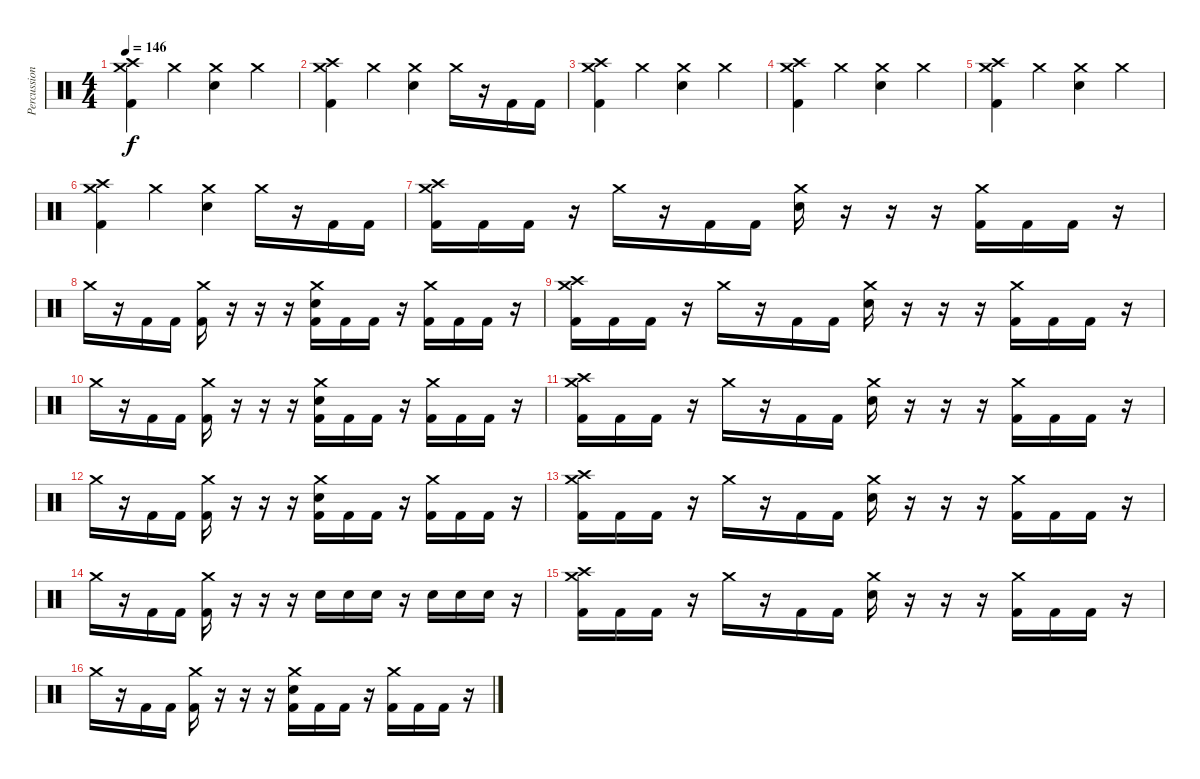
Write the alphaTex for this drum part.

\track ("Percussion" "Percussion") {instrument percussion}
\staff {score}
\articulation defaults
\ts (4 4)
\tempo 146
\clef neutral
\ks c
("Crash high (hit)" "Crash medium (hit)" "Kick (hit) 2").4{dy f} "Crash medium (hit)".4 ("Crash medium (hit)" "Snare (hit) 2").4 "Crash medium (hit)".4 |
("Crash high (hit)" "Crash medium (hit)" "Kick (hit) 2").4 "Crash medium (hit)".4 ("Crash medium (hit)" "Snare (hit) 2").4 "Crash medium (hit)".16 r.16 "Kick (hit) 2".16 "Kick (hit) 2".16 |
("Crash high (hit)" "Crash medium (hit)" "Kick (hit) 2").4 "Crash medium (hit)".4 ("Crash medium (hit)" "Snare (hit) 2").4 "Crash medium (hit)".4 |
("Crash high (hit)" "Crash medium (hit)" "Kick (hit) 2").4 "Crash medium (hit)".4 ("Crash medium (hit)" "Snare (hit) 2").4 "Crash medium (hit)".4 |
("Crash high (hit)" "Crash medium (hit)" "Kick (hit) 2").4 "Crash medium (hit)".4 ("Crash medium (hit)" "Snare (hit) 2").4 "Crash medium (hit)".4 |
("Crash high (hit)" "Crash medium (hit)" "Kick (hit) 2").4 "Crash medium (hit)".4 ("Crash medium (hit)" "Snare (hit) 2").4 "Crash medium (hit)".16 r.16 "Kick (hit) 2".16 "Kick (hit) 2".16 |
("Crash high (hit)" "Crash medium (hit)" "Kick (hit) 2").16 "Kick (hit) 2".16 "Kick (hit) 2".16 r.16 "Crash medium (hit)".16 r.16 "Kick (hit) 2".16 "Kick (hit) 2".16 ("Crash medium (hit)" "Snare (hit) 2").16 r.16 r.16 r.16 ("Crash medium (hit)" "Kick (hit) 2").16 "Kick (hit) 2".16 "Kick (hit) 2".16 r.16 |
"Crash medium (hit)".16 r.16 "Kick (hit) 2".16 "Kick (hit) 2".16 ("Crash medium (hit)" "Kick (hit) 2").16 r.16 r.16 r.16 ("Crash medium (hit)" "Snare (hit) 2" "Kick (hit) 2").16 "Kick (hit) 2".16 "Kick (hit) 2".16 r.16 ("Crash medium (hit)" "Kick (hit) 2").16 "Kick (hit) 2".16 "Kick (hit) 2".16 r.16 |
("Crash high (hit)" "Crash medium (hit)" "Kick (hit) 2").16 "Kick (hit) 2".16 "Kick (hit) 2".16 r.16 "Crash medium (hit)".16 r.16 "Kick (hit) 2".16 "Kick (hit) 2".16 ("Crash medium (hit)" "Snare (hit) 2").16 r.16 r.16 r.16 ("Crash medium (hit)" "Kick (hit) 2").16 "Kick (hit) 2".16 "Kick (hit) 2".16 r.16 |
"Crash medium (hit)".16 r.16 "Kick (hit) 2".16 "Kick (hit) 2".16 ("Crash medium (hit)" "Kick (hit) 2").16 r.16 r.16 r.16 ("Crash medium (hit)" "Snare (hit) 2" "Kick (hit) 2").16 "Kick (hit) 2".16 "Kick (hit) 2".16 r.16 ("Crash medium (hit)" "Kick (hit) 2").16 "Kick (hit) 2".16 "Kick (hit) 2".16 r.16 |
("Crash high (hit)" "Crash medium (hit)" "Kick (hit) 2").16 "Kick (hit) 2".16 "Kick (hit) 2".16 r.16 "Crash medium (hit)".16 r.16 "Kick (hit) 2".16 "Kick (hit) 2".16 ("Crash medium (hit)" "Snare (hit) 2").16 r.16 r.16 r.16 ("Crash medium (hit)" "Kick (hit) 2").16 "Kick (hit) 2".16 "Kick (hit) 2".16 r.16 |
"Crash medium (hit)".16 r.16 "Kick (hit) 2".16 "Kick (hit) 2".16 ("Crash medium (hit)" "Kick (hit) 2").16 r.16 r.16 r.16 ("Crash medium (hit)" "Snare (hit) 2" "Kick (hit) 2").16 "Kick (hit) 2".16 "Kick (hit) 2".16 r.16 ("Crash medium (hit)" "Kick (hit) 2").16 "Kick (hit) 2".16 "Kick (hit) 2".16 r.16 |
("Crash high (hit)" "Crash medium (hit)" "Kick (hit) 2").16 "Kick (hit) 2".16 "Kick (hit) 2".16 r.16 "Crash medium (hit)".16 r.16 "Kick (hit) 2".16 "Kick (hit) 2".16 ("Crash medium (hit)" "Snare (hit) 2").16 r.16 r.16 r.16 ("Crash medium (hit)" "Kick (hit) 2").16 "Kick (hit) 2".16 "Kick (hit) 2".16 r.16 |
"Crash medium (hit)".16 r.16 "Kick (hit) 2".16 "Kick (hit) 2".16 ("Crash medium (hit)" "Kick (hit) 2").16 r.16 r.16 r.16 "Snare (hit) 2".16 "Snare (hit) 2".16 "Snare (hit) 2".16 r.16 "Snare (hit) 2".16 "Snare (hit) 2".16 "Snare (hit) 2".16 r.16 |
("Crash high (hit)" "Crash medium (hit)" "Kick (hit) 2").16 "Kick (hit) 2".16 "Kick (hit) 2".16 r.16 "Crash medium (hit)".16 r.16 "Kick (hit) 2".16 "Kick (hit) 2".16 ("Crash medium (hit)" "Snare (hit) 2").16 r.16 r.16 r.16 ("Crash medium (hit)" "Kick (hit) 2").16 "Kick (hit) 2".16 "Kick (hit) 2".16 r.16 |
"Crash medium (hit)".16 r.16 "Kick (hit) 2".16 "Kick (hit) 2".16 ("Crash medium (hit)" "Kick (hit) 2").16 r.16 r.16 r.16 ("Crash medium (hit)" "Snare (hit) 2" "Kick (hit) 2").16 "Kick (hit) 2".16 "Kick (hit) 2".16 r.16 ("Crash medium (hit)" "Kick (hit) 2").16 "Kick (hit) 2".16 "Kick (hit) 2".16 r.16
